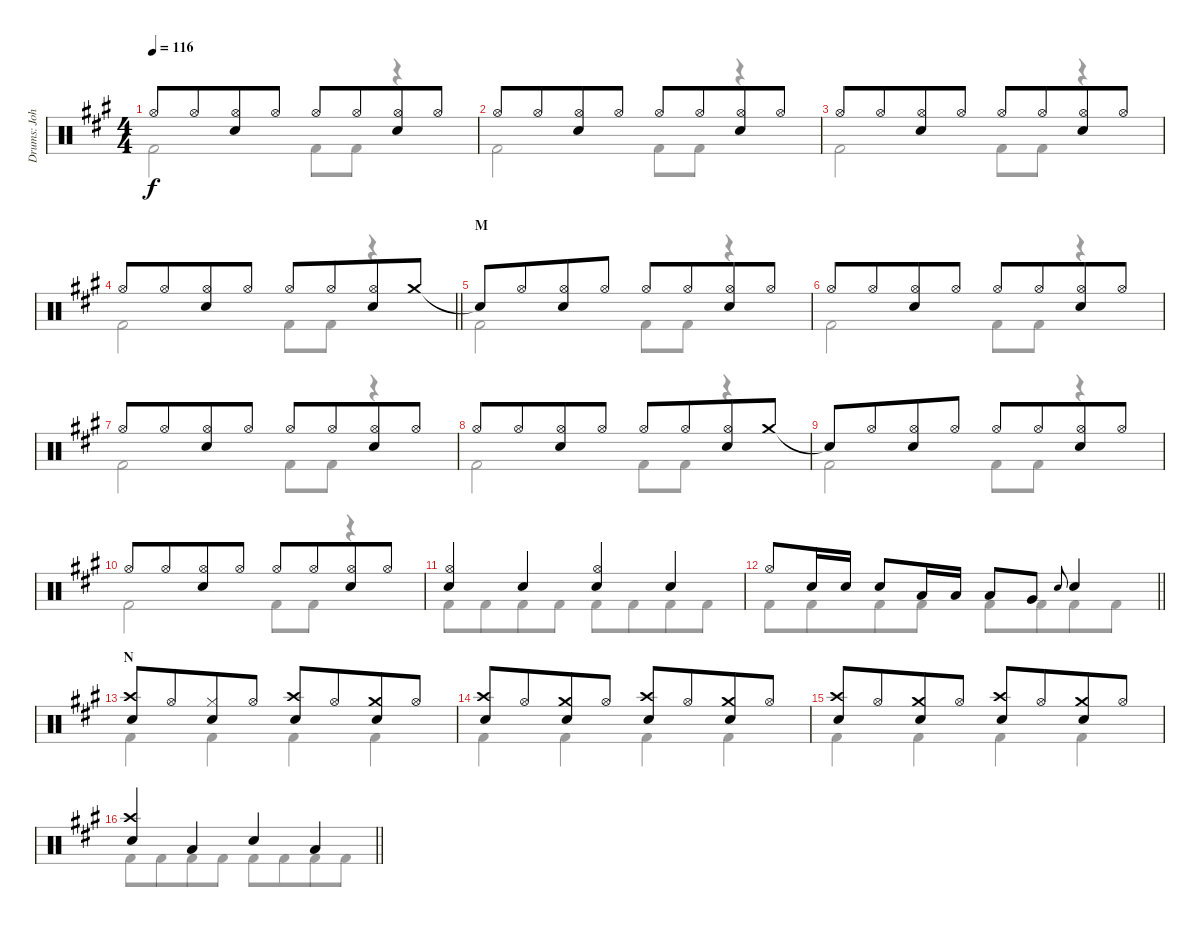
\track ("Drums: John" "Drums: Joh") {instrument percussion}
\staff {score}
\articulation defaults
\voice
\ts (4 4)
\tempo 116
\clef neutral
\ks a "Hi-Hat (open)".8{dy f} "Hi-Hat (open)".8{beam merge}
("Hi-Hat (open)" "Electric Snare (hit)").8 "Hi-Hat (open)".8 "Hi-Hat (open)".8 "Hi-Hat (open)".8{beam merge} ("Hi-Hat (open)" "Electric Snare (hit)").8 "Hi-Hat (open)".8 |
"Hi-Hat (open)".8 "Hi-Hat (open)".8{beam merge} ("Hi-Hat (open)" "Electric Snare (hit)").8 "Hi-Hat (open)".8 "Hi-Hat (open)".8 "Hi-Hat (open)".8{beam merge} ("Hi-Hat (open)" "Electric Snare (hit)").8 "Hi-Hat (open)".8 |
"Hi-Hat (open)".8 "Hi-Hat (open)".8{beam merge} ("Hi-Hat (open)" "Electric Snare (hit)").8 "Hi-Hat (open)".8 "Hi-Hat (open)".8 "Hi-Hat (open)".8{beam merge} ("Hi-Hat (open)" "Electric Snare (hit)").8 "Hi-Hat (open)".8 |
\barLineRight lightlight "Hi-Hat (open)".8 "Hi-Hat (open)".8{beam merge}
("Hi-Hat (open)" "Electric Snare (hit)").8 "Hi-Hat (open)".8 "Hi-Hat (open)".8 "Hi-Hat (open)".8{beam merge} ("Hi-Hat (open)" "Electric Snare (hit)").8 "Crash medium (hit)".8 |
\section ("" "M")
"Snare (hit)"{t}.8 "Hi-Hat (open)".8{beam merge} ("Hi-Hat (open)" "Electric Snare (hit)").8 "Hi-Hat (open)".8 "Hi-Hat (open)".8 "Hi-Hat (open)".8{beam merge} ("Hi-Hat (open)" "Electric Snare (hit)").8 "Hi-Hat (open)".8 |
"Hi-Hat (open)".8 "Hi-Hat (open)".8{beam merge} ("Hi-Hat (open)" "Electric Snare (hit)").8 "Hi-Hat (open)".8 "Hi-Hat (open)".8 "Hi-Hat (open)".8{beam merge} ("Hi-Hat (open)" "Electric Snare (hit)").8 "Hi-Hat (open)".8 |
"Hi-Hat (open)".8 "Hi-Hat (open)".8{beam merge} ("Hi-Hat (open)" "Electric Snare (hit)").8 "Hi-Hat (open)".8 "Hi-Hat (open)".8 "Hi-Hat (open)".8{beam merge} ("Hi-Hat (open)" "Electric Snare (hit)").8 "Hi-Hat (open)".8 |
"Hi-Hat (open)".8 "Hi-Hat (open)".8{beam merge} ("Hi-Hat (open)" "Electric Snare (hit)").8 "Hi-Hat (open)".8 "Hi-Hat (open)".8 "Hi-Hat (open)".8{beam merge} ("Hi-Hat (open)" "Electric Snare (hit)").8 "Crash medium (hit)".8 |
"Snare (hit)"{t}.8 "Hi-Hat (open)".8{beam merge} ("Hi-Hat (open)" "Electric Snare (hit)").8 "Hi-Hat (open)".8 "Hi-Hat (open)".8 "Hi-Hat (open)".8{beam merge} ("Hi-Hat (open)" "Electric Snare (hit)").8 "Hi-Hat (open)".8 |
"Hi-Hat (open)".8 "Hi-Hat (open)".8{beam merge} ("Hi-Hat (open)" "Electric Snare (hit)").8 "Hi-Hat (open)".8 "Hi-Hat (open)".8 "Hi-Hat (open)".8{beam merge} ("Hi-Hat (open)" "Electric Snare (hit)").8 "Hi-Hat (open)".8 |
("Hi-Hat (open)" "Electric Snare (hit)").4{beam merge} "Electric Snare (hit)".4 ("Hi-Hat (open)" "Electric Snare (hit)").4{beam merge} "Electric Snare (hit)".4 |
\barLineRight lightlight "Hi-Hat (open)".8 "Electric Snare (hit)".16{beam merge} "Electric Snare (hit)".16 "Electric Snare (hit)".8 "Low Tom (hit)".16{beam merge} "Low Tom (hit)".16 "Low Tom (hit)".8 "Very Low Tom (hit)".8 "Snare (hit) 2".8{gr onbeat} "Electric Snare (hit)".4
|
\section ("" "N")
("Crash high (hit)" "Electric Snare (hit)").8 "Hi-Hat (open)".8{beam merge} ("Hi-Hat (closed)" "Electric Snare (hit)").8 "Hi-Hat (open)".8 ("Crash high (hit)" "Electric Snare (hit)").8 "Hi-Hat (open)".8{beam merge} ("Crash medium (hit)" "Electric Snare (hit)").8 "Hi-Hat (open)".8 |
("Crash high (hit)" "Electric Snare (hit)").8 "Hi-Hat (open)".8{beam merge} ("Crash medium (hit)" "Electric Snare (hit)").8 "Hi-Hat (open)".8 ("Crash high (hit)" "Electric Snare (hit)").8 "Hi-Hat (open)".8{beam merge} ("Crash medium (hit)" "Electric Snare (hit)").8 "Hi-Hat (open)".8 |
("Crash high (hit)" "Electric Snare (hit)").8 "Hi-Hat (open)".8{beam merge} ("Crash medium (hit)" "Electric Snare (hit)").8 "Hi-Hat (open)".8 ("Crash high (hit)" "Electric Snare (hit)").8 "Hi-Hat (open)".8{beam merge} ("Crash medium (hit)" "Electric Snare (hit)").8 "Hi-Hat (open)".8 |
\barLineRight lightlight
("Crash high (hit)" "Electric Snare (hit)").4 "Low Floor Tom (hit)".4 "Electric Snare (hit)".4 "Low Floor Tom (hit)".4
\voice
\clef neutral
\ottava regular
\simile none
\ks a "Kick (hit) 2".2{dy f} "Kick (hit) 2".8 "Kick (hit) 2".8
r.4 |
"Kick (hit) 2".2 "Kick (hit) 2".8 "Kick (hit) 2".8 r.4 |
"Kick (hit) 2".2 "Kick (hit) 2".8 "Kick (hit) 2".8 r.4 |
\barLineRight lightlight "Kick (hit) 2".2 "Kick (hit) 2".8 "Kick (hit) 2".8
r.4 |
"Kick (hit) 2".2 "Kick (hit) 2".8 "Kick (hit) 2".8 r.4 |
"Kick (hit) 2".2 "Kick (hit) 2".8 "Kick (hit) 2".8 r.4 |
"Kick (hit) 2".2 "Kick (hit) 2".8 "Kick (hit) 2".8 r.4 |
"Kick (hit) 2".2 "Kick (hit) 2".8 "Kick (hit) 2".8 r.4 |
"Kick (hit) 2".2 "Kick (hit) 2".8 "Kick (hit) 2".8 r.4 |
"Kick (hit) 2".2 "Kick (hit) 2".8 "Kick (hit) 2".8 r.4 |
"Kick (hit) 2".8 "Kick (hit) 2".8{beam merge} "Kick (hit) 2".8 "Kick (hit) 2".8 "Kick (hit) 2".8 "Kick (hit) 2".8{beam merge} "Kick (hit) 2".8 "Kick (hit) 2".8 |
\barLineRight lightlight "Kick (hit) 2".8 "Kick (hit) 2".8{beam merge} "Kick (hit) 2".8 "Kick (hit) 2".8 "Kick (hit) 2".8 "Kick (hit) 2".8{beam merge} "Kick (hit) 2".8 "Kick (hit) 2".8
|
"Kick (hit) 2".4 "Kick (hit) 2".4 "Kick (hit) 2".4 "Kick (hit) 2".4 |
"Kick (hit) 2".4 "Kick (hit) 2".4 "Kick (hit) 2".4 "Kick (hit) 2".4 |
"Kick (hit) 2".4 "Kick (hit) 2".4 "Kick (hit) 2".4 "Kick (hit) 2".4 |
\barLineRight lightlight "Kick (hit) 2".8 "Kick (hit) 2".8{beam merge} "Kick (hit) 2".8 "Kick (hit) 2".8 "Kick (hit) 2".8 "Kick (hit) 2".8{beam merge} "Kick (hit) 2".8 "Kick (hit) 2".8
